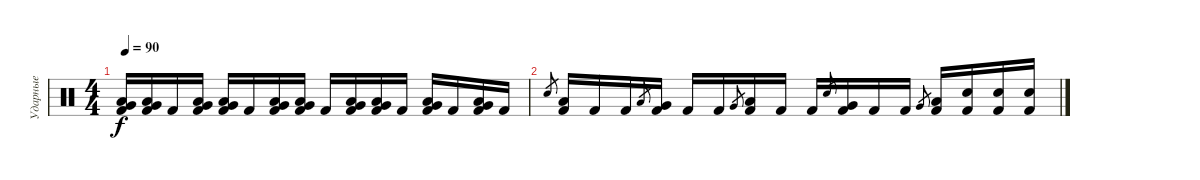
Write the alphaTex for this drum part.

\track ("Ударные" "Ударные") {instrument percussion}
\staff {score}
\articulation defaults
\ts (4 4)
\tempo 90
\clef neutral
\ks c
("Very Low Tom (hit)" "Low Floor Tom (hit)" "Kick (hit) 2").16{dy f} ("Very Low Tom (hit)" "Low Floor Tom (hit)" "Kick (hit) 2").16 "Kick (hit) 2".16 ("Very Low Tom (hit)" "Low Floor Tom (hit)" "Kick (hit) 2").16 ("Very Low Tom (hit)" "Low Floor Tom (hit)" "Kick (hit) 2").16 "Kick (hit) 2".16 ("Very Low Tom (hit)" "Low Floor Tom (hit)" "Kick (hit) 2").16 ("Very Low Tom (hit)" "Low Floor Tom (hit)" "Kick (hit) 2").16 "Kick (hit) 2".16 ("Very Low Tom (hit)" "Low Floor Tom (hit)" "Kick (hit) 2").16 ("Very Low Tom (hit)" "Low Floor Tom (hit)" "Kick (hit) 2").16 "Kick (hit) 2".16 ("Very Low Tom (hit)" "Low Floor Tom (hit)" "Kick (hit) 2").16 "Kick (hit) 2".16 ("Very Low Tom (hit)" "Low Floor Tom (hit)" "Kick (hit) 2").16 "Kick (hit) 2".16 |
"Snare (hit) 2".8{gr} ("Low Tom (hit)" "Kick (hit) 2").16 "Kick (hit) 2".16 "Kick (hit) 2".16 "Low Tom (hit)".8{gr} ("Very Low Tom (hit)" "Kick (hit) 2").16 "Kick (hit) 2".16 "Kick (hit) 2".16 "Very Low Tom (hit)".8{gr} ("Low Floor Tom (hit)" "Kick (hit) 2").16 "Kick (hit) 2".16 "Kick (hit) 2".16 "Snare (hit) 2".8{gr} ("Very Low Tom (hit)" "Kick (hit) 2").16 "Kick (hit) 2".16 "Kick (hit) 2".16 "Very Low Tom (hit)".8{gr} ("Low Floor Tom (hit)" "Kick (hit) 2").16 ("Snare (hit) 2" "Kick (hit) 2").16 ("Snare (hit) 2" "Kick (hit) 2").16 ("Snare (hit) 2" "Kick (hit) 2").16
